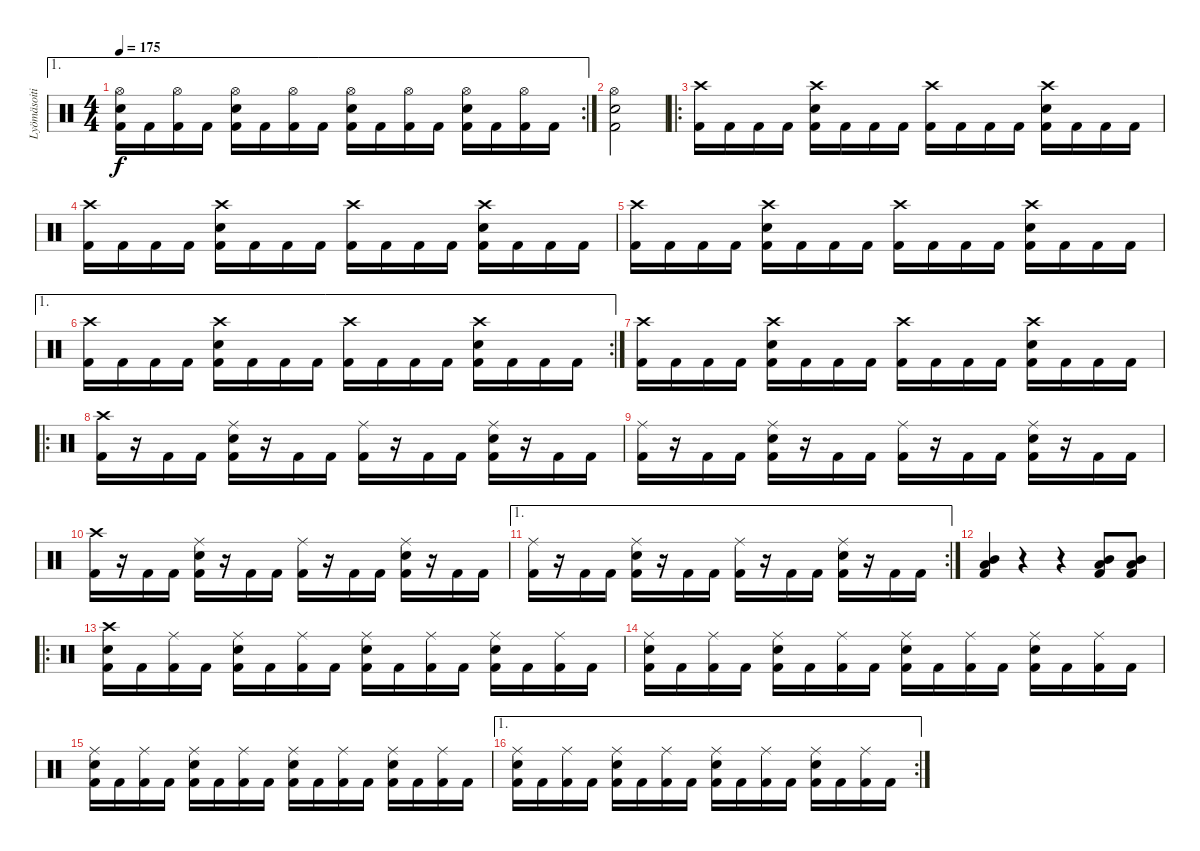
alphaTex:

\track ("Lyömäsoitin" "Lyömäsoiti") {instrument percussion}
\staff {score}
\articulation defaults
\ae 1
\rc 2
\ts (4 4)
\tempo 175
\clef neutral
\ks c
("Kick (hit) 2" "Electric Snare (hit)" "Hi-Hat (open)").16{dy f} "Kick (hit) 2".16 ("Kick (hit) 2" "Hi-Hat (open)").16 "Kick (hit) 2".16 ("Kick (hit) 2" "Electric Snare (hit)" "Hi-Hat (open)").16 "Kick (hit) 2".16 ("Kick (hit) 2" "Hi-Hat (open)").16 "Kick (hit) 2".16 ("Kick (hit) 2" "Electric Snare (hit)" "Hi-Hat (open)").16 "Kick (hit) 2".16 ("Kick (hit) 2" "Hi-Hat (open)").16 "Kick (hit) 2".16 ("Kick (hit) 2" "Electric Snare (hit)" "Hi-Hat (open)").16 "Kick (hit) 2".16 ("Kick (hit) 2" "Hi-Hat (open)").16 "Kick (hit) 2".16 |
("Kick (hit) 2" "Electric Snare (hit)" "Hi-Hat (open)").2 |
\ro
("Kick (hit) 2" "Crash high (hit)").16 "Kick (hit) 2".16 "Kick (hit) 2".16 "Kick (hit) 2".16 ("Kick (hit) 2" "Electric Snare (hit)" "Crash high (hit)").16 "Kick (hit) 2".16 "Kick (hit) 2".16 "Kick (hit) 2".16 ("Kick (hit) 2" "Crash high (hit)").16 "Kick (hit) 2".16 "Kick (hit) 2".16 "Kick (hit) 2".16 ("Kick (hit) 2" "Electric Snare (hit)" "Crash high (hit)").16 "Kick (hit) 2".16 "Kick (hit) 2".16 "Kick (hit) 2".16 |
("Kick (hit) 2" "Crash high (hit)").16 "Kick (hit) 2".16 "Kick (hit) 2".16 "Kick (hit) 2".16 ("Kick (hit) 2" "Electric Snare (hit)" "Crash high (hit)").16 "Kick (hit) 2".16 "Kick (hit) 2".16 "Kick (hit) 2".16 ("Kick (hit) 2" "Crash high (hit)").16 "Kick (hit) 2".16 "Kick (hit) 2".16 "Kick (hit) 2".16 ("Kick (hit) 2" "Electric Snare (hit)" "Crash high (hit)").16 "Kick (hit) 2".16 "Kick (hit) 2".16 "Kick (hit) 2".16 |
("Kick (hit) 2" "Crash high (hit)").16 "Kick (hit) 2".16 "Kick (hit) 2".16 "Kick (hit) 2".16 ("Kick (hit) 2" "Electric Snare (hit)" "Crash high (hit)").16 "Kick (hit) 2".16 "Kick (hit) 2".16 "Kick (hit) 2".16 ("Kick (hit) 2" "Crash high (hit)").16 "Kick (hit) 2".16 "Kick (hit) 2".16 "Kick (hit) 2".16 ("Kick (hit) 2" "Electric Snare (hit)" "Crash high (hit)").16 "Kick (hit) 2".16 "Kick (hit) 2".16 "Kick (hit) 2".16 |
\ae 1
\rc 2
("Kick (hit) 2" "Crash high (hit)").16 "Kick (hit) 2".16 "Kick (hit) 2".16 "Kick (hit) 2".16 ("Kick (hit) 2" "Electric Snare (hit)" "Crash high (hit)").16 "Kick (hit) 2".16 "Kick (hit) 2".16 "Kick (hit) 2".16 ("Kick (hit) 2" "Crash high (hit)").16 "Kick (hit) 2".16 "Kick (hit) 2".16 "Kick (hit) 2".16 ("Kick (hit) 2" "Electric Snare (hit)" "Crash high (hit)").16 "Kick (hit) 2".16 "Kick (hit) 2".16 "Kick (hit) 2".16 |
("Kick (hit) 2" "Crash high (hit)").16 "Kick (hit) 2".16 "Kick (hit) 2".16 "Kick (hit) 2".16 ("Kick (hit) 2" "Electric Snare (hit)" "Crash high (hit)").16 "Kick (hit) 2".16 "Kick (hit) 2".16 "Kick (hit) 2".16 ("Kick (hit) 2" "Crash high (hit)").16 "Kick (hit) 2".16 "Kick (hit) 2".16 "Kick (hit) 2".16 ("Kick (hit) 2" "Electric Snare (hit)" "Crash high (hit)").16 "Kick (hit) 2".16 "Kick (hit) 2".16 "Kick (hit) 2".16 |
\ro
("Kick (hit) 2" "Crash high (hit)").16 r.16 "Kick (hit) 2".16 "Kick (hit) 2".16 ("Kick (hit) 2" "Electric Snare (hit)" "Ride (middle)").16 r.16 "Kick (hit) 2".16 "Kick (hit) 2".16 ("Kick (hit) 2" "Ride (middle)").16 r.16 "Kick (hit) 2".16 "Kick (hit) 2".16 ("Kick (hit) 2" "Electric Snare (hit)" "Ride (middle)").16 r.16 "Kick (hit) 2".16 "Kick (hit) 2".16 |
("Kick (hit) 2" "Ride (middle)").16 r.16 "Kick (hit) 2".16 "Kick (hit) 2".16 ("Kick (hit) 2" "Electric Snare (hit)" "Ride (middle)").16 r.16 "Kick (hit) 2".16 "Kick (hit) 2".16 ("Kick (hit) 2" "Ride (middle)").16 r.16 "Kick (hit) 2".16 "Kick (hit) 2".16 ("Kick (hit) 2" "Electric Snare (hit)" "Ride (middle)").16 r.16 "Kick (hit) 2".16 "Kick (hit) 2".16 |
("Kick (hit) 2" "Crash high (hit)").16 r.16 "Kick (hit) 2".16 "Kick (hit) 2".16 ("Kick (hit) 2" "Electric Snare (hit)" "Ride (middle)").16 r.16 "Kick (hit) 2".16 "Kick (hit) 2".16 ("Kick (hit) 2" "Ride (middle)").16 r.16 "Kick (hit) 2".16 "Kick (hit) 2".16 ("Kick (hit) 2" "Electric Snare (hit)" "Ride (middle)").16 r.16 "Kick (hit) 2".16 "Kick (hit) 2".16 |
\ae 1
\rc 2
("Kick (hit) 2" "Ride (middle)").16 r.16 "Kick (hit) 2".16 "Kick (hit) 2".16 ("Kick (hit) 2" "Electric Snare (hit)" "Ride (middle)").16 r.16 "Kick (hit) 2".16 "Kick (hit) 2".16 ("Kick (hit) 2" "Ride (middle)").16 r.16 "Kick (hit) 2".16 "Kick (hit) 2".16 ("Kick (hit) 2" "Electric Snare (hit)" "Ride (middle)").16 r.16 "Kick (hit) 2".16 "Kick (hit) 2".16 |
("Kick (hit) 2" "Mid Tom (hit)" "Low Tom (hit)").4 r.4 r.4 ("Kick (hit) 2" "Mid Tom (hit)" "Low Tom (hit)").8 ("Kick (hit) 2" "Mid Tom (hit)" "Low Tom (hit)").8 |
\ro
("Kick (hit) 2" "Electric Snare (hit)" "Crash high (hit)").16 "Kick (hit) 2".16 ("Kick (hit) 2" "Ride (middle)").16 "Kick (hit) 2".16 ("Kick (hit) 2" "Electric Snare (hit)" "Ride (middle)").16 "Kick (hit) 2".16 ("Kick (hit) 2" "Ride (middle)").16 "Kick (hit) 2".16 ("Kick (hit) 2" "Electric Snare (hit)" "Ride (middle)").16 "Kick (hit) 2".16 ("Kick (hit) 2" "Ride (middle)").16 "Kick (hit) 2".16 ("Kick (hit) 2" "Electric Snare (hit)" "Ride (middle)").16 "Kick (hit) 2".16 ("Kick (hit) 2" "Ride (middle)").16 "Kick (hit) 2".16 |
("Kick (hit) 2" "Electric Snare (hit)" "Ride (middle)").16 "Kick (hit) 2".16 ("Kick (hit) 2" "Ride (middle)").16 "Kick (hit) 2".16 ("Kick (hit) 2" "Electric Snare (hit)" "Ride (middle)").16 "Kick (hit) 2".16 ("Kick (hit) 2" "Ride (middle)").16 "Kick (hit) 2".16 ("Kick (hit) 2" "Electric Snare (hit)" "Ride (middle)").16 "Kick (hit) 2".16 ("Kick (hit) 2" "Ride (middle)").16 "Kick (hit) 2".16 ("Kick (hit) 2" "Electric Snare (hit)" "Ride (middle)").16 "Kick (hit) 2".16 ("Kick (hit) 2" "Ride (middle)").16 "Kick (hit) 2".16 |
("Kick (hit) 2" "Electric Snare (hit)" "Ride (middle)").16 "Kick (hit) 2".16 ("Kick (hit) 2" "Ride (middle)").16 "Kick (hit) 2".16 ("Kick (hit) 2" "Electric Snare (hit)" "Ride (middle)").16 "Kick (hit) 2".16 ("Kick (hit) 2" "Ride (middle)").16 "Kick (hit) 2".16 ("Kick (hit) 2" "Electric Snare (hit)" "Ride (middle)").16 "Kick (hit) 2".16 ("Kick (hit) 2" "Ride (middle)").16 "Kick (hit) 2".16 ("Kick (hit) 2" "Electric Snare (hit)" "Ride (middle)").16 "Kick (hit) 2".16 ("Kick (hit) 2" "Ride (middle)").16 "Kick (hit) 2".16 |
\ae 1
\rc 2
("Kick (hit) 2" "Electric Snare (hit)" "Ride (middle)").16 "Kick (hit) 2".16 ("Kick (hit) 2" "Ride (middle)").16 "Kick (hit) 2".16 ("Kick (hit) 2" "Electric Snare (hit)" "Ride (middle)").16 "Kick (hit) 2".16 ("Kick (hit) 2" "Ride (middle)").16 "Kick (hit) 2".16 ("Kick (hit) 2" "Electric Snare (hit)" "Ride (middle)").16 "Kick (hit) 2".16 ("Kick (hit) 2" "Ride (middle)").16 "Kick (hit) 2".16 ("Kick (hit) 2" "Electric Snare (hit)" "Ride (middle)").16 "Kick (hit) 2".16 ("Kick (hit) 2" "Ride (middle)").16 "Kick (hit) 2".16
